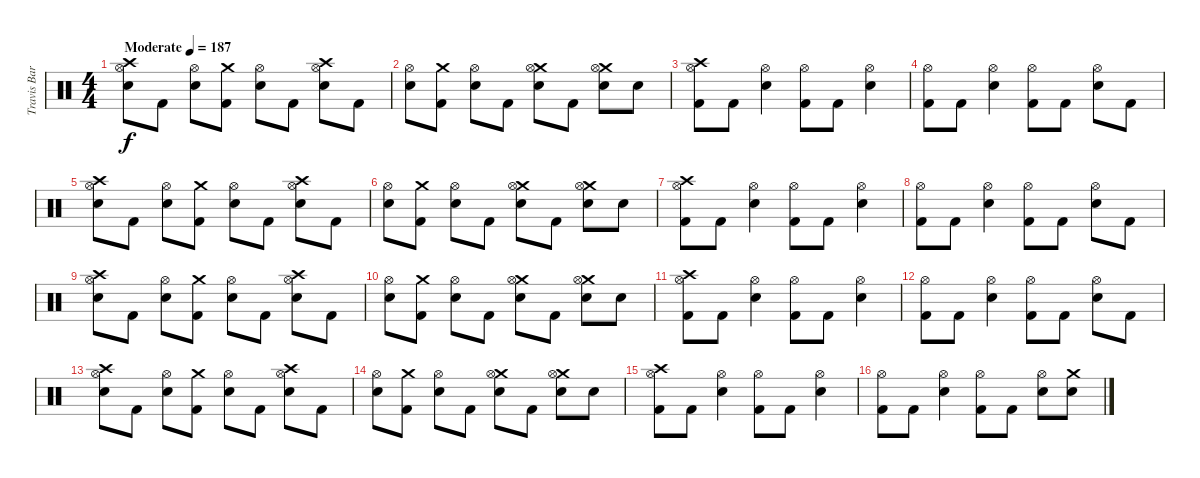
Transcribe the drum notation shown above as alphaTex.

\track ("Travis Barker Drums" "Travis Bar") {instrument percussion}
\staff {score}
\articulation defaults
\ts (4 4)
\tempo (187 "Moderate")
\clef neutral
\ks c
("Crash high (hit)" "Hi-Hat (open)" "Electric Snare (hit)").8{dy f} "Kick (hit) 2".8 ("Hi-Hat (open)" "Electric Snare (hit)").8 ("Crash medium (hit)" "Kick (hit) 2").8 ("Hi-Hat (open)" "Electric Snare (hit)").8 "Kick (hit) 2".8 ("Crash high (hit)" "Hi-Hat (open)" "Electric Snare (hit)").8 "Kick (hit) 2".8 |
("Hi-Hat (open)" "Electric Snare (hit)").8 ("Crash medium (hit)" "Kick (hit) 2").8 ("Hi-Hat (open)" "Electric Snare (hit)").8 "Kick (hit) 2".8 ("Crash medium (hit)" "Hi-Hat (open)" "Electric Snare (hit)").8 "Kick (hit) 2".8 ("Crash medium (hit)" "Hi-Hat (open)" "Electric Snare (hit)").8 "Electric Snare (hit)".8 |
("Crash high (hit)" "Hi-Hat (open)" "Kick (hit) 2").8 "Kick (hit) 2".8 ("Hi-Hat (open)" "Electric Snare (hit)").4 ("Hi-Hat (open)" "Kick (hit) 2").8 "Kick (hit) 2".8 ("Hi-Hat (open)" "Electric Snare (hit)").4 |
("Hi-Hat (open)" "Kick (hit) 2").8 "Kick (hit) 2".8 ("Hi-Hat (open)" "Electric Snare (hit)").4 ("Hi-Hat (open)" "Kick (hit) 2").8 "Kick (hit) 2".8 ("Hi-Hat (open)" "Electric Snare (hit)").8 "Kick (hit) 2".8 |
("Crash high (hit)" "Hi-Hat (open)" "Electric Snare (hit)").8 "Kick (hit) 2".8 ("Hi-Hat (open)" "Electric Snare (hit)").8 ("Crash medium (hit)" "Kick (hit) 2").8 ("Hi-Hat (open)" "Electric Snare (hit)").8 "Kick (hit) 2".8 ("Crash high (hit)" "Hi-Hat (open)" "Electric Snare (hit)").8 "Kick (hit) 2".8 |
("Hi-Hat (open)" "Electric Snare (hit)").8 ("Crash medium (hit)" "Kick (hit) 2").8 ("Hi-Hat (open)" "Electric Snare (hit)").8 "Kick (hit) 2".8 ("Crash medium (hit)" "Hi-Hat (open)" "Electric Snare (hit)").8 "Kick (hit) 2".8 ("Crash medium (hit)" "Hi-Hat (open)" "Electric Snare (hit)").8 "Electric Snare (hit)".8 |
("Crash high (hit)" "Hi-Hat (open)" "Kick (hit) 2").8 "Kick (hit) 2".8 ("Hi-Hat (open)" "Electric Snare (hit)").4 ("Hi-Hat (open)" "Kick (hit) 2").8 "Kick (hit) 2".8 ("Hi-Hat (open)" "Electric Snare (hit)").4 |
("Hi-Hat (open)" "Kick (hit) 2").8 "Kick (hit) 2".8 ("Hi-Hat (open)" "Electric Snare (hit)").4 ("Hi-Hat (open)" "Kick (hit) 2").8 "Kick (hit) 2".8 ("Hi-Hat (open)" "Electric Snare (hit)").8 "Kick (hit) 2".8 |
("Crash high (hit)" "Hi-Hat (open)" "Electric Snare (hit)").8 "Kick (hit) 2".8 ("Hi-Hat (open)" "Electric Snare (hit)").8 ("Crash medium (hit)" "Kick (hit) 2").8 ("Hi-Hat (open)" "Electric Snare (hit)").8 "Kick (hit) 2".8 ("Crash high (hit)" "Hi-Hat (open)" "Electric Snare (hit)").8 "Kick (hit) 2".8 |
("Hi-Hat (open)" "Electric Snare (hit)").8 ("Crash medium (hit)" "Kick (hit) 2").8 ("Hi-Hat (open)" "Electric Snare (hit)").8 "Kick (hit) 2".8 ("Crash medium (hit)" "Hi-Hat (open)" "Electric Snare (hit)").8 "Kick (hit) 2".8 ("Crash medium (hit)" "Hi-Hat (open)" "Electric Snare (hit)").8 "Electric Snare (hit)".8 |
("Crash high (hit)" "Hi-Hat (open)" "Kick (hit) 2").8 "Kick (hit) 2".8 ("Hi-Hat (open)" "Electric Snare (hit)").4 ("Hi-Hat (open)" "Kick (hit) 2").8 "Kick (hit) 2".8 ("Hi-Hat (open)" "Electric Snare (hit)").4 |
("Hi-Hat (open)" "Kick (hit) 2").8 "Kick (hit) 2".8 ("Hi-Hat (open)" "Electric Snare (hit)").4 ("Hi-Hat (open)" "Kick (hit) 2").8 "Kick (hit) 2".8 ("Hi-Hat (open)" "Electric Snare (hit)").8 "Kick (hit) 2".8 |
("Crash high (hit)" "Hi-Hat (open)" "Electric Snare (hit)").8 "Kick (hit) 2".8 ("Hi-Hat (open)" "Electric Snare (hit)").8 ("Crash medium (hit)" "Kick (hit) 2").8 ("Hi-Hat (open)" "Electric Snare (hit)").8 "Kick (hit) 2".8 ("Crash high (hit)" "Hi-Hat (open)" "Electric Snare (hit)").8 "Kick (hit) 2".8 |
("Hi-Hat (open)" "Electric Snare (hit)").8 ("Crash medium (hit)" "Kick (hit) 2").8 ("Hi-Hat (open)" "Electric Snare (hit)").8 "Kick (hit) 2".8 ("Crash medium (hit)" "Hi-Hat (open)" "Electric Snare (hit)").8 "Kick (hit) 2".8 ("Crash medium (hit)" "Hi-Hat (open)" "Electric Snare (hit)").8 "Electric Snare (hit)".8 |
("Crash high (hit)" "Hi-Hat (open)" "Kick (hit) 2").8 "Kick (hit) 2".8 ("Hi-Hat (open)" "Electric Snare (hit)").4 ("Hi-Hat (open)" "Kick (hit) 2").8 "Kick (hit) 2".8 ("Hi-Hat (open)" "Electric Snare (hit)").4 |
("Hi-Hat (open)" "Kick (hit) 2").8 "Kick (hit) 2".8 ("Hi-Hat (open)" "Electric Snare (hit)").4 ("Hi-Hat (open)" "Kick (hit) 2").8 "Kick (hit) 2".8 ("Hi-Hat (open)" "Electric Snare (hit)").8 ("Crash medium (hit)" "Electric Snare (hit)").8
